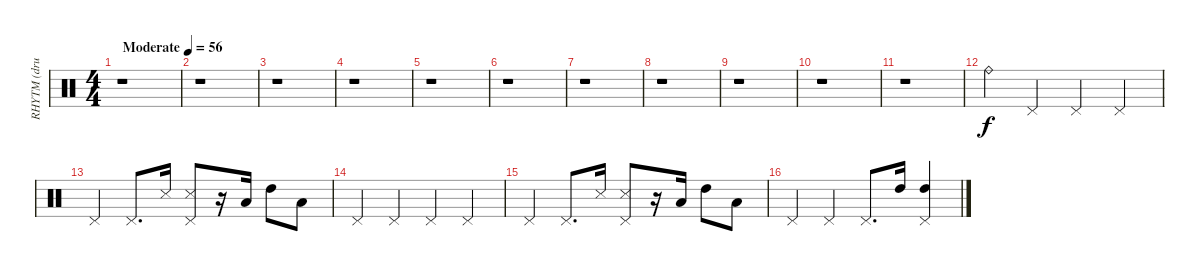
\track ("RHYTM (drums)" "RHYTM (dru") {instrument percussion}
\staff {score}
\articulation defaults
\ts (4 4)
\tempo (56 "Moderate")
\clef neutral
\ks c
r.1{dy f} |
r.1 |
r.1 |
r.1 |
r.1 |
r.1 |
r.1 |
r.1 |
r.1 |
r.1 |
r.1 |
"Ride (bell)".4 "Pedal Hi-Hat (hit)".4 "Pedal Hi-Hat (hit)".4 "Pedal Hi-Hat (hit)".4 |
"Pedal Hi-Hat (hit)".4 "Pedal Hi-Hat (hit)".8{d} "Metronome (hit)".16 ("Metronome (hit)" "Pedal Hi-Hat (hit)").8 r.16 "Low Tom (hit)".16 "High Tom (hit)".8 "Low Floor Tom (hit)".8 |
"Pedal Hi-Hat (hit)".4 "Pedal Hi-Hat (hit)".4 "Pedal Hi-Hat (hit)".4 "Pedal Hi-Hat (hit)".4 |
"Pedal Hi-Hat (hit)".4 "Pedal Hi-Hat (hit)".8{d} "Metronome (hit)".16 ("Metronome (hit)" "Pedal Hi-Hat (hit)").8 r.16 "Low Tom (hit)".16 "High Tom (hit)".8 "Low Floor Tom (hit)".8 |
"Pedal Hi-Hat (hit)".4 "Pedal Hi-Hat (hit)".4 "Pedal Hi-Hat (hit)".8{d} "High Tom (hit)".16 ("High Tom (hit)" "Pedal Hi-Hat (hit)").4
